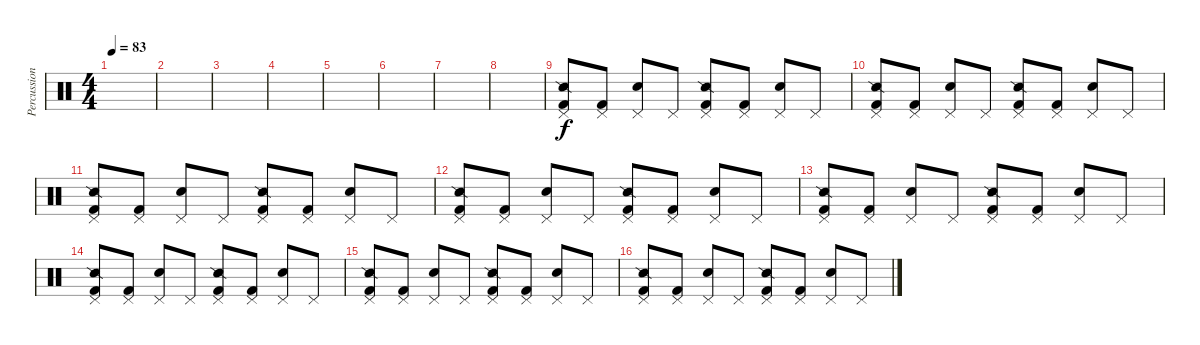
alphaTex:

\track ("Percussion" "Percussion") {instrument percussion}
\staff {score}
\articulation defaults
\ts (4 4)
\tempo 83
\clef neutral
\ks c
|
|
|
|
|
|
|
|
("Snare (side stick) 2" "Kick (hit) 2" "Pedal Hi-Hat (hit)").8 ("Kick (hit) 2" "Pedal Hi-Hat (hit)").8 ("Electric Snare (hit)" "Pedal Hi-Hat (hit)").8 "Pedal Hi-Hat (hit)".8 ("Snare (side stick) 2" "Kick (hit) 2" "Pedal Hi-Hat (hit)").8 ("Kick (hit) 2" "Pedal Hi-Hat (hit)").8 ("Electric Snare (hit)" "Pedal Hi-Hat (hit)").8 "Pedal Hi-Hat (hit)".8 |
("Snare (side stick) 2" "Kick (hit) 2" "Pedal Hi-Hat (hit)").8 ("Kick (hit) 2" "Pedal Hi-Hat (hit)").8 ("Electric Snare (hit)" "Pedal Hi-Hat (hit)").8 "Pedal Hi-Hat (hit)".8 ("Snare (side stick) 2" "Kick (hit) 2" "Pedal Hi-Hat (hit)").8 ("Kick (hit) 2" "Pedal Hi-Hat (hit)").8 ("Electric Snare (hit)" "Pedal Hi-Hat (hit)").8 "Pedal Hi-Hat (hit)".8 |
("Snare (side stick) 2" "Kick (hit) 2" "Pedal Hi-Hat (hit)").8 ("Kick (hit) 2" "Pedal Hi-Hat (hit)").8 ("Electric Snare (hit)" "Pedal Hi-Hat (hit)").8 "Pedal Hi-Hat (hit)".8 ("Snare (side stick) 2" "Kick (hit) 2" "Pedal Hi-Hat (hit)").8 ("Kick (hit) 2" "Pedal Hi-Hat (hit)").8 ("Electric Snare (hit)" "Pedal Hi-Hat (hit)").8 "Pedal Hi-Hat (hit)".8 |
("Snare (side stick) 2" "Kick (hit) 2" "Pedal Hi-Hat (hit)").8 ("Kick (hit) 2" "Pedal Hi-Hat (hit)").8 ("Electric Snare (hit)" "Pedal Hi-Hat (hit)").8 "Pedal Hi-Hat (hit)".8 ("Snare (side stick) 2" "Kick (hit) 2" "Pedal Hi-Hat (hit)").8 ("Kick (hit) 2" "Pedal Hi-Hat (hit)").8 ("Electric Snare (hit)" "Pedal Hi-Hat (hit)").8 "Pedal Hi-Hat (hit)".8 |
("Snare (side stick) 2" "Kick (hit) 2" "Pedal Hi-Hat (hit)").8 ("Kick (hit) 2" "Pedal Hi-Hat (hit)").8 ("Electric Snare (hit)" "Pedal Hi-Hat (hit)").8 "Pedal Hi-Hat (hit)".8 ("Snare (side stick) 2" "Kick (hit) 2" "Pedal Hi-Hat (hit)").8 ("Kick (hit) 2" "Pedal Hi-Hat (hit)").8 ("Electric Snare (hit)" "Pedal Hi-Hat (hit)").8 "Pedal Hi-Hat (hit)".8 |
("Snare (side stick) 2" "Kick (hit) 2" "Pedal Hi-Hat (hit)").8 ("Kick (hit) 2" "Pedal Hi-Hat (hit)").8 ("Electric Snare (hit)" "Pedal Hi-Hat (hit)").8 "Pedal Hi-Hat (hit)".8 ("Snare (side stick) 2" "Kick (hit) 2" "Pedal Hi-Hat (hit)").8 ("Kick (hit) 2" "Pedal Hi-Hat (hit)").8 ("Electric Snare (hit)" "Pedal Hi-Hat (hit)").8 "Pedal Hi-Hat (hit)".8 |
("Snare (side stick) 2" "Kick (hit) 2" "Pedal Hi-Hat (hit)").8 ("Kick (hit) 2" "Pedal Hi-Hat (hit)").8 ("Electric Snare (hit)" "Pedal Hi-Hat (hit)").8 "Pedal Hi-Hat (hit)".8 ("Snare (side stick) 2" "Kick (hit) 2" "Pedal Hi-Hat (hit)").8 ("Kick (hit) 2" "Pedal Hi-Hat (hit)").8 ("Electric Snare (hit)" "Pedal Hi-Hat (hit)").8 "Pedal Hi-Hat (hit)".8 |
("Snare (side stick) 2" "Kick (hit) 2" "Pedal Hi-Hat (hit)").8 ("Kick (hit) 2" "Pedal Hi-Hat (hit)").8 ("Electric Snare (hit)" "Pedal Hi-Hat (hit)").8 "Pedal Hi-Hat (hit)".8 ("Snare (side stick) 2" "Kick (hit) 2" "Pedal Hi-Hat (hit)").8 ("Kick (hit) 2" "Pedal Hi-Hat (hit)").8 ("Electric Snare (hit)" "Pedal Hi-Hat (hit)").8 "Pedal Hi-Hat (hit)".8
